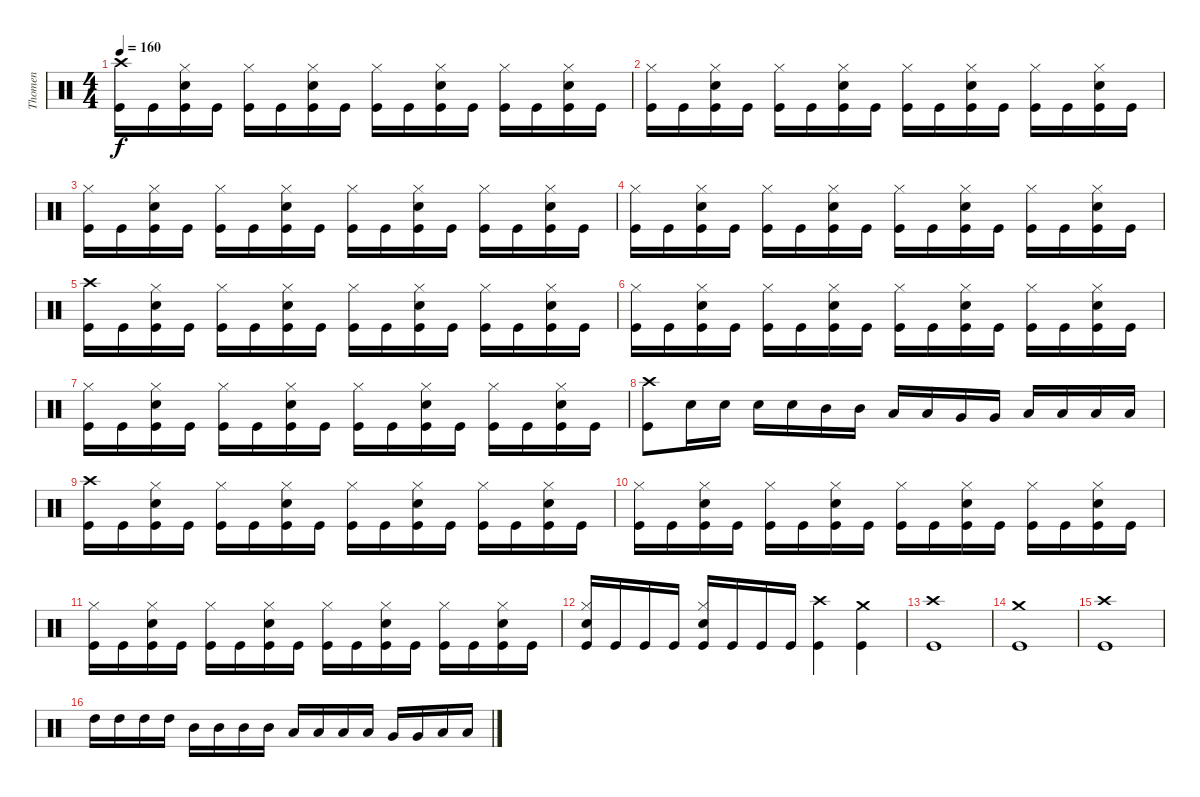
\track ("Thomen" "Thomen") {instrument percussion}
\staff {score}
\articulation defaults
\ts (4 4)
\tempo 160
\clef neutral
\ks c
("Crash high (hit)" "Kick (hit)").16{dy f} "Kick (hit)".16 ("Hi-Hat (closed)" "Snare (hit) 2" "Kick (hit)").16 "Kick (hit)".16 ("Hi-Hat (closed)" "Kick (hit)").16 "Kick (hit)".16 ("Hi-Hat (closed)" "Snare (hit) 2" "Kick (hit)").16 "Kick (hit)".16 ("Hi-Hat (closed)" "Kick (hit)").16 "Kick (hit)".16 ("Hi-Hat (closed)" "Snare (hit) 2" "Kick (hit)").16 "Kick (hit)".16 ("Hi-Hat (closed)" "Kick (hit)").16 "Kick (hit)".16 ("Hi-Hat (closed)" "Snare (hit) 2" "Kick (hit)").16 "Kick (hit)".16 |
("Hi-Hat (closed)" "Kick (hit)").16 "Kick (hit)".16 ("Hi-Hat (closed)" "Snare (hit) 2" "Kick (hit)").16 "Kick (hit)".16 ("Hi-Hat (closed)" "Kick (hit)").16 "Kick (hit)".16 ("Hi-Hat (closed)" "Snare (hit) 2" "Kick (hit)").16 "Kick (hit)".16 ("Hi-Hat (closed)" "Kick (hit)").16 "Kick (hit)".16 ("Hi-Hat (closed)" "Snare (hit) 2" "Kick (hit)").16 "Kick (hit)".16 ("Hi-Hat (closed)" "Kick (hit)").16 "Kick (hit)".16 ("Hi-Hat (closed)" "Snare (hit) 2" "Kick (hit)").16 "Kick (hit)".16 |
("Hi-Hat (closed)" "Kick (hit)").16 "Kick (hit)".16 ("Hi-Hat (closed)" "Snare (hit) 2" "Kick (hit)").16 "Kick (hit)".16 ("Hi-Hat (closed)" "Kick (hit)").16 "Kick (hit)".16 ("Hi-Hat (closed)" "Snare (hit) 2" "Kick (hit)").16 "Kick (hit)".16 ("Hi-Hat (closed)" "Kick (hit)").16 "Kick (hit)".16 ("Hi-Hat (closed)" "Snare (hit) 2" "Kick (hit)").16 "Kick (hit)".16 ("Hi-Hat (closed)" "Kick (hit)").16 "Kick (hit)".16 ("Hi-Hat (closed)" "Snare (hit) 2" "Kick (hit)").16 "Kick (hit)".16 |
("Hi-Hat (closed)" "Kick (hit)").16 "Kick (hit)".16 ("Hi-Hat (closed)" "Snare (hit) 2" "Kick (hit)").16 "Kick (hit)".16 ("Hi-Hat (closed)" "Kick (hit)").16 "Kick (hit)".16 ("Hi-Hat (closed)" "Snare (hit) 2" "Kick (hit)").16 "Kick (hit)".16 ("Hi-Hat (closed)" "Kick (hit)").16 "Kick (hit)".16 ("Hi-Hat (closed)" "Snare (hit) 2" "Kick (hit)").16 "Kick (hit)".16 ("Hi-Hat (closed)" "Kick (hit)").16 "Kick (hit)".16 ("Hi-Hat (closed)" "Snare (hit) 2" "Kick (hit)").16 "Kick (hit)".16 |
("Crash high (hit)" "Kick (hit)").16 "Kick (hit)".16 ("Hi-Hat (closed)" "Snare (hit) 2" "Kick (hit)").16 "Kick (hit)".16 ("Hi-Hat (closed)" "Kick (hit)").16 "Kick (hit)".16 ("Hi-Hat (closed)" "Snare (hit) 2" "Kick (hit)").16 "Kick (hit)".16 ("Hi-Hat (closed)" "Kick (hit)").16 "Kick (hit)".16 ("Hi-Hat (closed)" "Snare (hit) 2" "Kick (hit)").16 "Kick (hit)".16 ("Hi-Hat (closed)" "Kick (hit)").16 "Kick (hit)".16 ("Hi-Hat (closed)" "Snare (hit) 2" "Kick (hit)").16 "Kick (hit)".16 |
("Hi-Hat (closed)" "Kick (hit)").16 "Kick (hit)".16 ("Hi-Hat (closed)" "Snare (hit) 2" "Kick (hit)").16 "Kick (hit)".16 ("Hi-Hat (closed)" "Kick (hit)").16 "Kick (hit)".16 ("Hi-Hat (closed)" "Snare (hit) 2" "Kick (hit)").16 "Kick (hit)".16 ("Hi-Hat (closed)" "Kick (hit)").16 "Kick (hit)".16 ("Hi-Hat (closed)" "Snare (hit) 2" "Kick (hit)").16 "Kick (hit)".16 ("Hi-Hat (closed)" "Kick (hit)").16 "Kick (hit)".16 ("Hi-Hat (closed)" "Snare (hit) 2" "Kick (hit)").16 "Kick (hit)".16 |
("Hi-Hat (closed)" "Kick (hit)").16 "Kick (hit)".16 ("Hi-Hat (closed)" "Snare (hit) 2" "Kick (hit)").16 "Kick (hit)".16 ("Hi-Hat (closed)" "Kick (hit)").16 "Kick (hit)".16 ("Hi-Hat (closed)" "Snare (hit) 2" "Kick (hit)").16 "Kick (hit)".16 ("Hi-Hat (closed)" "Kick (hit)").16 "Kick (hit)".16 ("Hi-Hat (closed)" "Snare (hit) 2" "Kick (hit)").16 "Kick (hit)".16 ("Hi-Hat (closed)" "Kick (hit)").16 "Kick (hit)".16 ("Hi-Hat (closed)" "Snare (hit) 2" "Kick (hit)").16 "Kick (hit)".16 |
("Crash high (hit)" "Kick (hit)").8 "Snare (hit) 2".16 "Snare (hit) 2".16 "Snare (hit) 2".16 "Snare (hit) 2".16 "Mid Tom (hit)".16 "Mid Tom (hit)".16 "Low Tom (hit)".16 "Low Tom (hit)".16 "Very Low Tom (hit)".16 "Very Low Tom (hit)".16 "Low Floor Tom (hit)".16 "Low Floor Tom (hit)".16 "Low Floor Tom (hit)".16 "Low Floor Tom (hit)".16 |
("Crash high (hit)" "Kick (hit)").16 "Kick (hit)".16 ("Hi-Hat (closed)" "Snare (hit) 2" "Kick (hit)").16 "Kick (hit)".16 ("Hi-Hat (closed)" "Kick (hit)").16 "Kick (hit)".16 ("Hi-Hat (closed)" "Snare (hit) 2" "Kick (hit)").16 "Kick (hit)".16 ("Hi-Hat (closed)" "Kick (hit)").16 "Kick (hit)".16 ("Hi-Hat (closed)" "Snare (hit) 2" "Kick (hit)").16 "Kick (hit)".16 ("Hi-Hat (closed)" "Kick (hit)").16 "Kick (hit)".16 ("Hi-Hat (closed)" "Snare (hit) 2" "Kick (hit)").16 "Kick (hit)".16 |
("Hi-Hat (closed)" "Kick (hit)").16 "Kick (hit)".16 ("Hi-Hat (closed)" "Snare (hit) 2" "Kick (hit)").16 "Kick (hit)".16 ("Hi-Hat (closed)" "Kick (hit)").16 "Kick (hit)".16 ("Hi-Hat (closed)" "Snare (hit) 2" "Kick (hit)").16 "Kick (hit)".16 ("Hi-Hat (closed)" "Kick (hit)").16 "Kick (hit)".16 ("Hi-Hat (closed)" "Snare (hit) 2" "Kick (hit)").16 "Kick (hit)".16 ("Hi-Hat (closed)" "Kick (hit)").16 "Kick (hit)".16 ("Hi-Hat (closed)" "Snare (hit) 2" "Kick (hit)").16 "Kick (hit)".16 |
("Hi-Hat (closed)" "Kick (hit)").16 "Kick (hit)".16 ("Hi-Hat (closed)" "Snare (hit) 2" "Kick (hit)").16 "Kick (hit)".16 ("Hi-Hat (closed)" "Kick (hit)").16 "Kick (hit)".16 ("Hi-Hat (closed)" "Snare (hit) 2" "Kick (hit)").16 "Kick (hit)".16 ("Hi-Hat (closed)" "Kick (hit)").16 "Kick (hit)".16 ("Hi-Hat (closed)" "Snare (hit) 2" "Kick (hit)").16 "Kick (hit)".16 ("Hi-Hat (closed)" "Kick (hit)").16 "Kick (hit)".16 ("Hi-Hat (closed)" "Snare (hit) 2" "Kick (hit)").16 "Kick (hit)".16 |
("Hi-Hat (closed)" "Snare (hit) 2" "Kick (hit)").16 "Kick (hit)".16 "Kick (hit)".16 "Kick (hit)".16 ("Hi-Hat (closed)" "Snare (hit) 2" "Kick (hit)").16 "Kick (hit)".16 "Kick (hit)".16 "Kick (hit)".16 ("Crash high (hit)" "Kick (hit)").4 ("Crash medium (hit)" "Kick (hit)").4 |
("Crash high (hit)" "Kick (hit)").1 |
("Crash medium (hit)" "Kick (hit)").1 |
("Crash high (hit)" "Kick (hit)").1 |
"High Tom (hit)".16 "High Tom (hit)".16 "High Tom (hit)".16 "High Tom (hit)".16 "Mid Tom (hit)".16 "Mid Tom (hit)".16 "Mid Tom (hit)".16 "Mid Tom (hit)".16 "Low Tom (hit)".16 "Low Tom (hit)".16 "Low Tom (hit)".16 "Low Tom (hit)".16 "Very Low Tom (hit)".16 "Very Low Tom (hit)".16 "Low Floor Tom (hit)".16 "Low Floor Tom (hit)".16
